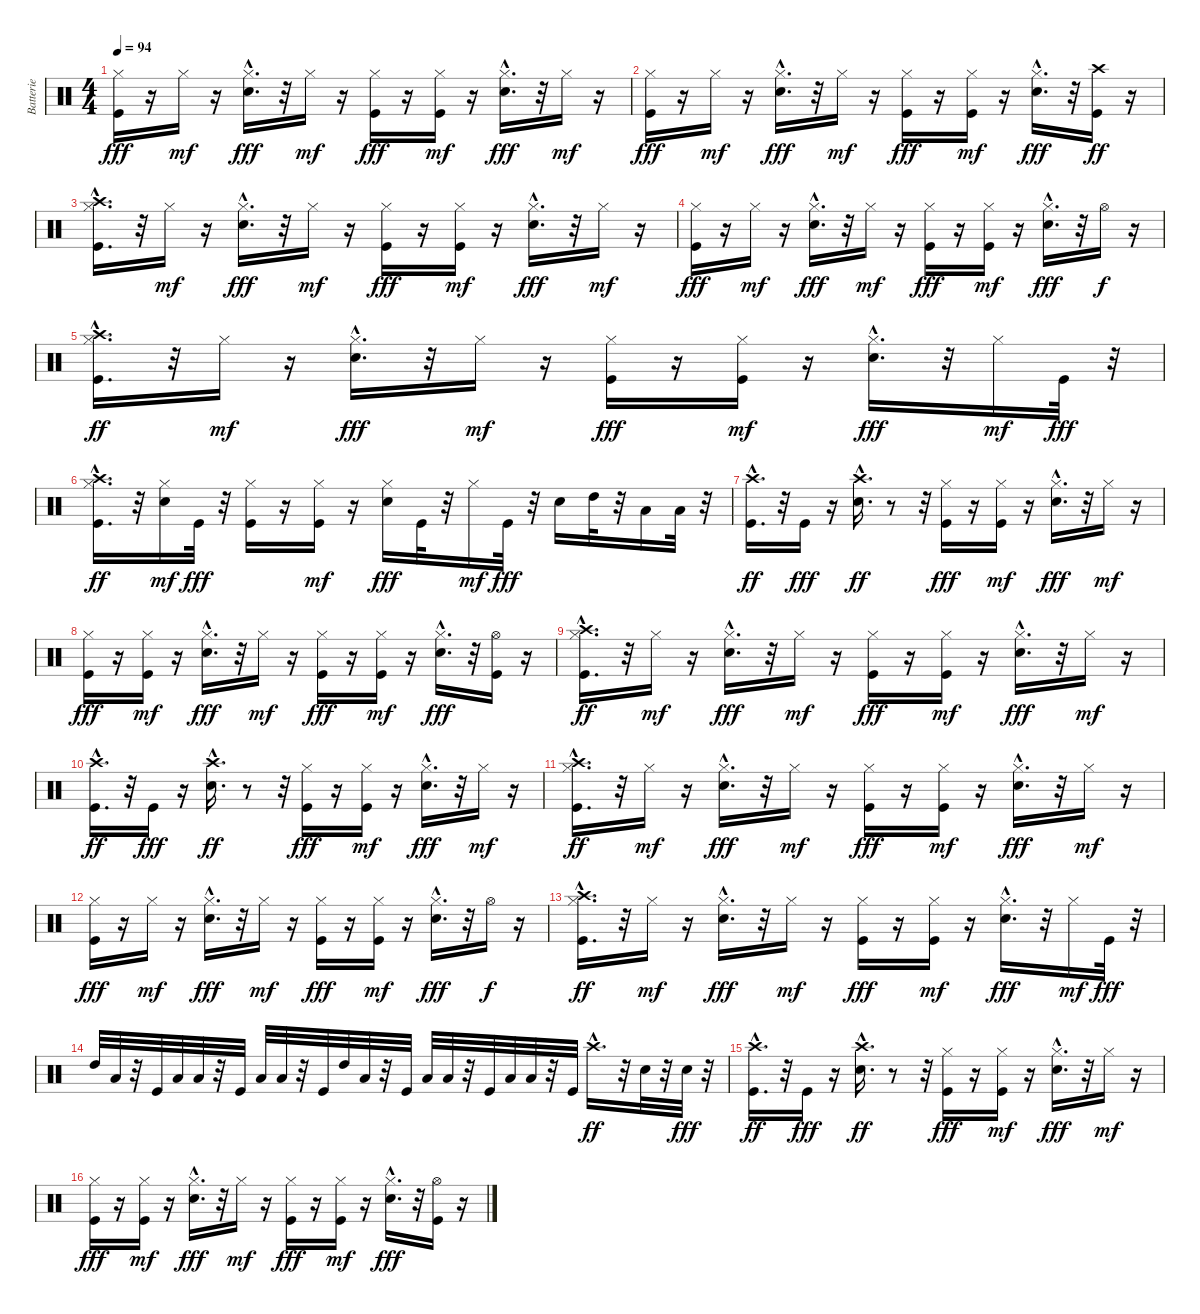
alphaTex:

\track ("Batterie" "Batterie") {instrument percussion}
\staff {score}
\articulation defaults
\ts (4 4)
\tempo 94
\clef neutral
\ks c
("Kick (hit)" "Hi-Hat (closed)").16{dy fff} r.16 "Hi-Hat (closed)".16{dy mf} r.16 ("Snare (hit) 2"{hac} "Hi-Hat (closed)").16{d dy fff} r.32 "Hi-Hat (closed)".16{dy mf} r.16 ("Kick (hit)" "Hi-Hat (closed)").16{dy fff} r.16 ("Kick (hit)" "Hi-Hat (closed)").16{dy mf} r.16 ("Snare (hit) 2"{hac} "Hi-Hat (closed)").16{d dy fff} r.32 "Hi-Hat (closed)".16{dy mf} r.16 |
("Kick (hit)" "Hi-Hat (closed)").16{dy fff} r.16 "Hi-Hat (closed)".16{dy mf} r.16 ("Snare (hit) 2"{hac} "Hi-Hat (closed)").16{d dy fff} r.32 "Hi-Hat (closed)".16{dy mf} r.16 ("Kick (hit)" "Hi-Hat (closed)").16{dy fff} r.16 ("Kick (hit)" "Hi-Hat (closed)").16{dy mf} r.16 ("Snare (hit) 2"{hac} "Hi-Hat (closed)").16{d dy fff} r.32 ("Kick (hit)" "Crash high (hit)").16{dy ff} r.16 |
("Kick (hit)" "Hi-Hat (closed)" "Crash high (hit)"{hac}).16{d} r.32 "Hi-Hat (closed)".16{dy mf} r.16 ("Snare (hit) 2"{hac} "Hi-Hat (closed)").16{d dy fff} r.32 "Hi-Hat (closed)".16{dy mf} r.16 ("Kick (hit)" "Hi-Hat (closed)").16{dy fff} r.16 ("Kick (hit)" "Hi-Hat (closed)").16{dy mf} r.16 ("Snare (hit) 2"{hac} "Hi-Hat (closed)").16{d dy fff} r.32 "Hi-Hat (closed)".16{dy mf} r.16 |
("Kick (hit)" "Hi-Hat (closed)").16{dy fff} r.16 "Hi-Hat (closed)".16{dy mf} r.16 ("Snare (hit) 2"{hac} "Hi-Hat (closed)").16{d dy fff} r.32 "Hi-Hat (closed)".16{dy mf} r.16 ("Kick (hit)" "Hi-Hat (closed)").16{dy fff} r.16 ("Kick (hit)" "Hi-Hat (closed)").16{dy mf} r.16 ("Snare (hit) 2"{hac} "Hi-Hat (closed)").16{d dy fff} r.32 "Hi-Hat (open)".16{dy f} r.16 |
("Kick (hit)" "Hi-Hat (closed)" "Crash high (hit)"{hac}).16{d dy ff} r.32 "Hi-Hat (closed)".16{dy mf} r.16 ("Snare (hit) 2"{hac} "Hi-Hat (closed)").16{d dy fff} r.32 "Hi-Hat (closed)".16{dy mf} r.16 ("Kick (hit)" "Hi-Hat (closed)").16{dy fff} r.16 ("Kick (hit)" "Hi-Hat (closed)").16{dy mf} r.16 ("Snare (hit) 2"{hac} "Hi-Hat (closed)").16{d dy fff} r.32 "Hi-Hat (closed)".16{dy mf} "Kick (hit)".32{dy fff} r.32 |
("Kick (hit)" "Hi-Hat (closed)" "Crash high (hit)"{hac}).16{d dy ff} r.32 ("Snare (hit) 2" "Hi-Hat (closed)").16{dy mf} "Kick (hit)".32{dy fff} r.32 ("Kick (hit)" "Hi-Hat (closed)").16 r.16 ("Kick (hit)" "Hi-Hat (closed)").16{dy mf} r.16 ("Snare (hit) 2" "Hi-Hat (closed)").16{dy fff} "Kick (hit)".32 r.32 "Hi-Hat (closed)".16{dy mf} "Kick (hit)".32{dy fff} r.32 "Snare (hit) 2".16 "High Tom (hit)".32 r.32 "Low Tom (hit)".16 "Low Floor Tom (hit)".32 r.32 |
("Kick (hit)" "Crash high (hit)"{hac}).16{d dy ff} r.32 "Kick (hit)".16{dy fff} r.16 ("Snare (hit) 2"{hac} "Crash high (hit)"{hac}).16{d dy ff} r.8 r.32 ("Kick (hit)" "Hi-Hat (closed)").16{dy fff} r.16 ("Kick (hit)" "Hi-Hat (closed)").16{dy mf} r.16 ("Snare (hit) 2"{hac} "Hi-Hat (closed)").16{d dy fff} r.32 "Hi-Hat (closed)".16{dy mf} r.16 |
("Kick (hit)" "Hi-Hat (closed)").16{dy fff} r.16 ("Kick (hit)" "Hi-Hat (closed)").16{dy mf} r.16 ("Snare (hit) 2"{hac} "Hi-Hat (closed)").16{d dy fff} r.32 "Hi-Hat (closed)".16{dy mf} r.16 ("Kick (hit)" "Hi-Hat (closed)").16{dy fff} r.16 ("Kick (hit)" "Hi-Hat (closed)").16{dy mf} r.16 ("Snare (hit) 2"{hac} "Hi-Hat (closed)").16{d dy fff} r.32 ("Kick (hit)" "Hi-Hat (open)").16 r.16 |
("Kick (hit)" "Hi-Hat (closed)" "Crash high (hit)"{hac}).16{d dy ff} r.32 "Hi-Hat (closed)".16{dy mf} r.16 ("Snare (hit) 2"{hac} "Hi-Hat (closed)").16{d dy fff} r.32 "Hi-Hat (closed)".16{dy mf} r.16 ("Kick (hit)" "Hi-Hat (closed)").16{dy fff} r.16 ("Kick (hit)" "Hi-Hat (closed)").16{dy mf} r.16 ("Snare (hit) 2"{hac} "Hi-Hat (closed)").16{d dy fff} r.32 "Hi-Hat (closed)".16{dy mf} r.16 |
("Kick (hit)" "Crash high (hit)"{hac}).16{d dy ff} r.32 "Kick (hit)".16{dy fff} r.16 ("Snare (hit) 2"{hac} "Crash high (hit)"{hac}).16{d dy ff} r.8 r.32 ("Kick (hit)" "Hi-Hat (closed)").16{dy fff} r.16 ("Kick (hit)" "Hi-Hat (closed)").16{dy mf} r.16 ("Snare (hit) 2"{hac} "Hi-Hat (closed)").16{d dy fff} r.32 "Hi-Hat (closed)".16{dy mf} r.16 |
("Kick (hit)" "Hi-Hat (closed)" "Crash high (hit)"{hac}).16{d dy ff} r.32 "Hi-Hat (closed)".16{dy mf} r.16 ("Snare (hit) 2"{hac} "Hi-Hat (closed)").16{d dy fff} r.32 "Hi-Hat (closed)".16{dy mf} r.16 ("Kick (hit)" "Hi-Hat (closed)").16{dy fff} r.16 ("Kick (hit)" "Hi-Hat (closed)").16{dy mf} r.16 ("Snare (hit) 2"{hac} "Hi-Hat (closed)").16{d dy fff} r.32 "Hi-Hat (closed)".16{dy mf} r.16 |
("Kick (hit)" "Hi-Hat (closed)").16{dy fff} r.16 "Hi-Hat (closed)".16{dy mf} r.16 ("Snare (hit) 2"{hac} "Hi-Hat (closed)").16{d dy fff} r.32 "Hi-Hat (closed)".16{dy mf} r.16 ("Kick (hit)" "Hi-Hat (closed)").16{dy fff} r.16 ("Kick (hit)" "Hi-Hat (closed)").16{dy mf} r.16 ("Snare (hit) 2"{hac} "Hi-Hat (closed)").16{d dy fff} r.32 "Hi-Hat (open)".16{dy f} r.16 |
("Kick (hit)" "Hi-Hat (closed)" "Crash high (hit)"{hac}).16{d dy ff} r.32 "Hi-Hat (closed)".16{dy mf} r.16 ("Snare (hit) 2"{hac} "Hi-Hat (closed)").16{d dy fff} r.32 "Hi-Hat (closed)".16{dy mf} r.16 ("Kick (hit)" "Hi-Hat (closed)").16{dy fff} r.16 ("Kick (hit)" "Hi-Hat (closed)").16{dy mf} r.16 ("Snare (hit) 2"{hac} "Hi-Hat (closed)").16{d dy fff} r.32 "Hi-Hat (closed)".16{dy mf} "Kick (hit)".32{dy fff} r.32 |
"High Tom (hit)".32 "Low Floor Tom (hit)".32 r.32 "Kick (hit)".32 "Low Tom (hit)".32 "Low Floor Tom (hit)".32 r.32 "Kick (hit)".32 "Low Tom (hit)".32 "Low Floor Tom (hit)".32 r.32 "Kick (hit)".32 "High Tom (hit)".32 "Low Floor Tom (hit)".32 r.32 "Kick (hit)".32 "Low Tom (hit)".32 "Low Floor Tom (hit)".32 r.32 "Kick (hit)".32 "Low Tom (hit)".32 "Low Floor Tom (hit)".32 r.32 "Kick (hit)".32 "Crash high (hit)"{hac}.16{d dy ff} r.32 "Snare (hit) 2".32 r.32 "Snare (hit) 2".32{dy fff} r.32 |
("Kick (hit)" "Crash high (hit)"{hac}).16{d dy ff} r.32 "Kick (hit)".16{dy fff} r.16 ("Snare (hit) 2"{hac} "Crash high (hit)"{hac}).16{d dy ff} r.8 r.32 ("Kick (hit)" "Hi-Hat (closed)").16{dy fff} r.16 ("Kick (hit)" "Hi-Hat (closed)").16{dy mf} r.16 ("Snare (hit) 2"{hac} "Hi-Hat (closed)").16{d dy fff} r.32 "Hi-Hat (closed)".16{dy mf} r.16 |
("Kick (hit)" "Hi-Hat (closed)").16{dy fff} r.16 ("Kick (hit)" "Hi-Hat (closed)").16{dy mf} r.16 ("Snare (hit) 2"{hac} "Hi-Hat (closed)").16{d dy fff} r.32 "Hi-Hat (closed)".16{dy mf} r.16 ("Kick (hit)" "Hi-Hat (closed)").16{dy fff} r.16 ("Kick (hit)" "Hi-Hat (closed)").16{dy mf} r.16 ("Snare (hit) 2"{hac} "Hi-Hat (closed)").16{d dy fff} r.32 ("Kick (hit)" "Hi-Hat (open)").16 r.16
